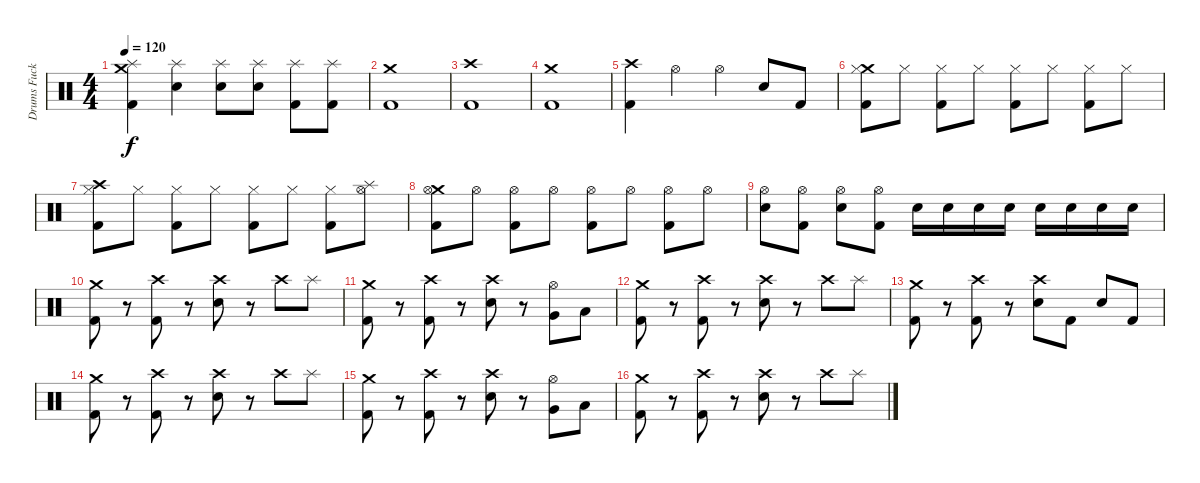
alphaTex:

\track ("Drums Fucker" "Drums Fuck") {instrument percussion}
\staff {score}
\articulation defaults
\ts (4 4)
\tempo 120
\clef neutral
\ks c
("Crash medium (hit)" "Splash (hit)" "Kick (hit) 2").4{dy f} ("Splash (hit)" "Snare (hit) 2").4 ("Splash (hit)" "Snare (hit) 2").8 ("Splash (hit)" "Snare (hit) 2").8 ("Splash (hit)" "Kick (hit) 2").8 ("Splash (hit)" "Kick (hit) 2").8 |
("Crash medium (hit)" "Kick (hit) 2").1 |
("Crash high (hit)" "Kick (hit) 2").1 |
("Crash medium (hit)" "Kick (hit) 2").1 |
("Crash high (hit)" "Kick (hit) 2").4 "Hi-Hat (open)".4 "Hi-Hat (open)".4 "Snare (hit) 2".8 "Kick (hit) 2".8 |
("Crash medium (hit)" "Kick (hit) 2" "Hi-Hat (closed)").8 "Hi-Hat (closed)".8 ("Kick (hit) 2" "Hi-Hat (closed)").8 "Hi-Hat (closed)".8 ("Kick (hit) 2" "Hi-Hat (closed)").8 "Hi-Hat (closed)".8 ("Kick (hit) 2" "Hi-Hat (closed)").8 "Hi-Hat (closed)".8 |
("Crash high (hit)" "Kick (hit) 2" "Hi-Hat (closed)").8 "Hi-Hat (closed)".8 ("Kick (hit) 2" "Hi-Hat (closed)").8 "Hi-Hat (closed)".8 ("Kick (hit) 2" "Hi-Hat (closed)").8 "Hi-Hat (closed)".8 ("Kick (hit) 2" "Hi-Hat (closed)").8 ("Splash (hit)" "Hi-Hat (open)").8 |
("Crash medium (hit)" "Kick (hit) 2" "Hi-Hat (open)").8 "Hi-Hat (open)".8 ("Kick (hit) 2" "Hi-Hat (open)").8 "Hi-Hat (open)".8 ("Kick (hit) 2" "Hi-Hat (open)").8 "Hi-Hat (open)".8 ("Kick (hit) 2" "Hi-Hat (open)").8 "Hi-Hat (open)".8 |
("Snare (hit) 2" "Hi-Hat (open)").8 ("Kick (hit) 2" "Hi-Hat (open)").8 ("Snare (hit) 2" "Hi-Hat (open)").8 ("Kick (hit) 2" "Hi-Hat (open)").8 "Snare (hit) 2".16 "Snare (hit) 2".16 "Snare (hit) 2".16 "Snare (hit) 2".16 "Snare (hit) 2".16 "Snare (hit) 2".16 "Snare (hit) 2".16 "Snare (hit) 2".16 |
("Crash medium (hit)" "Kick (hit) 2").8 r.8 ("Crash high (hit)" "Kick (hit) 2").8 r.8 ("Crash high (hit)" "Snare (hit) 2").8 r.8 "Crash high (hit)".8 "Splash (hit)".8 |
("Crash medium (hit)" "Kick (hit) 2").8 r.8 ("Crash high (hit)" "Kick (hit) 2").8 r.8 ("Crash high (hit)" "Snare (hit) 2").8 r.8 ("Hi-Hat (open)" "Very Low Tom (hit)").8 "Low Floor Tom (hit)".8 |
("Crash medium (hit)" "Kick (hit) 2").8 r.8 ("Crash high (hit)" "Kick (hit) 2").8 r.8 ("Crash high (hit)" "Snare (hit) 2").8 r.8 "Crash high (hit)".8 "Splash (hit)".8 |
("Crash medium (hit)" "Kick (hit) 2").8 r.8 ("Crash high (hit)" "Kick (hit) 2").8 r.8 ("Crash high (hit)" "Snare (hit) 2").8 "Kick (hit) 2".8 "Snare (hit) 2".8 "Kick (hit) 2".8 |
("Crash medium (hit)" "Kick (hit) 2").8 r.8 ("Crash high (hit)" "Kick (hit) 2").8 r.8 ("Crash high (hit)" "Snare (hit) 2").8 r.8 "Crash high (hit)".8 "Splash (hit)".8 |
("Crash medium (hit)" "Kick (hit) 2").8 r.8 ("Crash high (hit)" "Kick (hit) 2").8 r.8 ("Crash high (hit)" "Snare (hit) 2").8 r.8 ("Hi-Hat (open)" "Very Low Tom (hit)").8 "Low Floor Tom (hit)".8 |
("Crash medium (hit)" "Kick (hit) 2").8 r.8 ("Crash high (hit)" "Kick (hit) 2").8 r.8 ("Crash high (hit)" "Snare (hit) 2").8 r.8 "Crash high (hit)".8 "Splash (hit)".8
